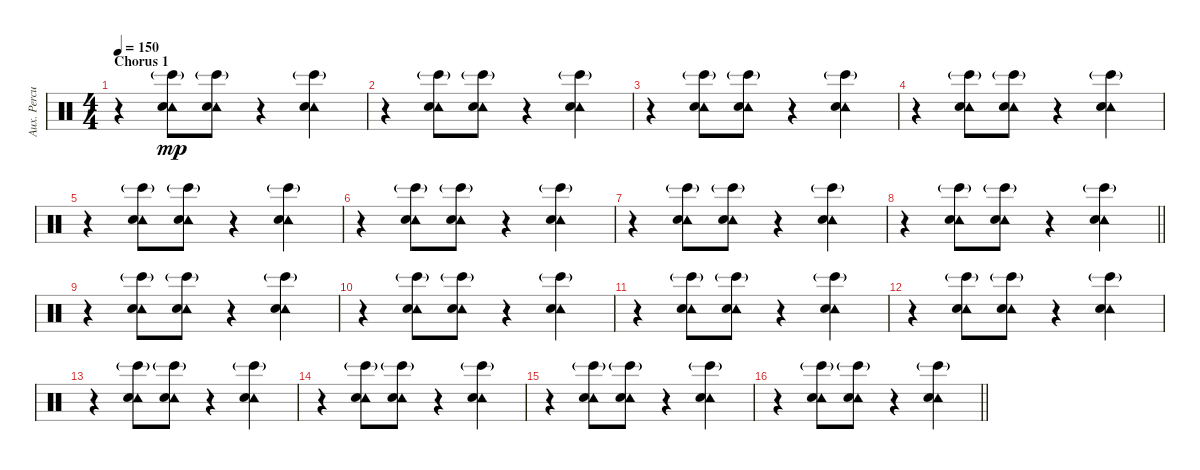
\track ("Aux. Percussion" "Aux. Percu") {instrument percussion}
\staff {score}
\articulation defaults
\ts (4 4)
\section ("" "Chorus 1")
\tempo 150
\clef neutral
\ks c
r.4{dy mp} ("Tambourine (hit)" "Hand Clap (hit)" "Bongo High (hit)"{g}).8 ("Tambourine (hit)" "Hand Clap (hit)" "Bongo High (hit)"{g}).8 r.4 ("Tambourine (hit)" "Hand Clap (hit)" "Bongo High (hit)"{g}).4 |
r.4 ("Tambourine (hit)" "Hand Clap (hit)" "Bongo High (hit)"{g}).8 ("Tambourine (hit)" "Hand Clap (hit)" "Bongo High (hit)"{g}).8 r.4 ("Tambourine (hit)" "Hand Clap (hit)" "Bongo High (hit)"{g}).4 |
r.4 ("Tambourine (hit)" "Hand Clap (hit)" "Bongo High (hit)"{g}).8 ("Tambourine (hit)" "Hand Clap (hit)" "Bongo High (hit)"{g}).8 r.4 ("Tambourine (hit)" "Hand Clap (hit)" "Bongo High (hit)"{g}).4 |
r.4 ("Tambourine (hit)" "Hand Clap (hit)" "Bongo High (hit)"{g}).8 ("Tambourine (hit)" "Hand Clap (hit)" "Bongo High (hit)"{g}).8 r.4 ("Tambourine (hit)" "Hand Clap (hit)" "Bongo High (hit)"{g}).4 |
r.4 ("Tambourine (hit)" "Hand Clap (hit)" "Bongo High (hit)"{g}).8 ("Tambourine (hit)" "Hand Clap (hit)" "Bongo High (hit)"{g}).8 r.4 ("Tambourine (hit)" "Hand Clap (hit)" "Bongo High (hit)"{g}).4 |
r.4 ("Tambourine (hit)" "Hand Clap (hit)" "Bongo High (hit)"{g}).8 ("Tambourine (hit)" "Hand Clap (hit)" "Bongo High (hit)"{g}).8 r.4 ("Tambourine (hit)" "Hand Clap (hit)" "Bongo High (hit)"{g}).4 |
r.4 ("Tambourine (hit)" "Hand Clap (hit)" "Bongo High (hit)"{g}).8 ("Tambourine (hit)" "Hand Clap (hit)" "Bongo High (hit)"{g}).8 r.4 ("Tambourine (hit)" "Hand Clap (hit)" "Bongo High (hit)"{g}).4 |
\barLineRight lightlight
r.4 ("Tambourine (hit)" "Hand Clap (hit)" "Bongo High (hit)"{g}).8 ("Tambourine (hit)" "Hand Clap (hit)" "Bongo High (hit)"{g}).8 r.4 ("Tambourine (hit)" "Hand Clap (hit)" "Bongo High (hit)"{g}).4 |
r.4 ("Tambourine (hit)" "Hand Clap (hit)" "Bongo High (hit)"{g}).8 ("Tambourine (hit)" "Hand Clap (hit)" "Bongo High (hit)"{g}).8 r.4 ("Tambourine (hit)" "Hand Clap (hit)" "Bongo High (hit)"{g}).4 |
r.4 ("Tambourine (hit)" "Hand Clap (hit)" "Bongo High (hit)"{g}).8 ("Tambourine (hit)" "Hand Clap (hit)" "Bongo High (hit)"{g}).8 r.4 ("Tambourine (hit)" "Hand Clap (hit)" "Bongo High (hit)"{g}).4 |
r.4 ("Tambourine (hit)" "Hand Clap (hit)" "Bongo High (hit)"{g}).8 ("Tambourine (hit)" "Hand Clap (hit)" "Bongo High (hit)"{g}).8 r.4 ("Tambourine (hit)" "Hand Clap (hit)" "Bongo High (hit)"{g}).4 |
r.4 ("Tambourine (hit)" "Hand Clap (hit)" "Bongo High (hit)"{g}).8 ("Tambourine (hit)" "Hand Clap (hit)" "Bongo High (hit)"{g}).8 r.4 ("Tambourine (hit)" "Hand Clap (hit)" "Bongo High (hit)"{g}).4 |
r.4 ("Tambourine (hit)" "Hand Clap (hit)" "Bongo High (hit)"{g}).8 ("Tambourine (hit)" "Hand Clap (hit)" "Bongo High (hit)"{g}).8 r.4 ("Tambourine (hit)" "Hand Clap (hit)" "Bongo High (hit)"{g}).4 |
r.4 ("Tambourine (hit)" "Hand Clap (hit)" "Bongo High (hit)"{g}).8 ("Tambourine (hit)" "Hand Clap (hit)" "Bongo High (hit)"{g}).8 r.4 ("Tambourine (hit)" "Hand Clap (hit)" "Bongo High (hit)"{g}).4 |
r.4 ("Tambourine (hit)" "Hand Clap (hit)" "Bongo High (hit)"{g}).8 ("Tambourine (hit)" "Hand Clap (hit)" "Bongo High (hit)"{g}).8 r.4 ("Tambourine (hit)" "Hand Clap (hit)" "Bongo High (hit)"{g}).4 |
\barLineRight lightlight
r.4 ("Tambourine (hit)" "Hand Clap (hit)" "Bongo High (hit)"{g}).8 ("Tambourine (hit)" "Hand Clap (hit)" "Bongo High (hit)"{g}).8 r.4 ("Tambourine (hit)" "Hand Clap (hit)" "Bongo High (hit)"{g}).4
